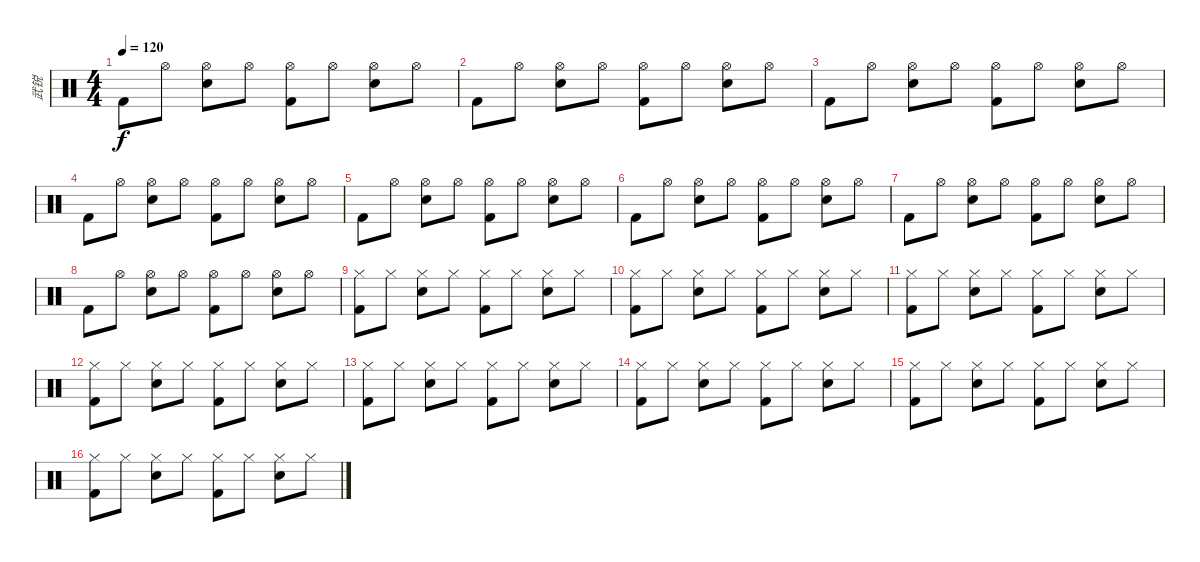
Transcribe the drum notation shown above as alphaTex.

\track ("武锐" "武锐") {instrument percussion}
\staff {score}
\articulation defaults
\ts (4 4)
\tempo 120
\clef neutral
\ks c "Kick (hit) 2".8{dy f} "Hi-Hat (open)".8
("Hi-Hat (open)" "Snare (hit) 2").8 "Hi-Hat (open)".8 ("Hi-Hat (open)" "Kick (hit) 2").8 "Hi-Hat (open)".8 ("Hi-Hat (open)" "Snare (hit) 2").8 "Hi-Hat (open)".8 |
"Kick (hit) 2".8 "Hi-Hat (open)".8 ("Hi-Hat (open)" "Snare (hit) 2").8 "Hi-Hat (open)".8 ("Hi-Hat (open)" "Kick (hit) 2").8 "Hi-Hat (open)".8 ("Hi-Hat (open)" "Snare (hit) 2").8 "Hi-Hat (open)".8 |
"Kick (hit) 2".8 "Hi-Hat (open)".8 ("Hi-Hat (open)" "Snare (hit) 2").8 "Hi-Hat (open)".8 ("Hi-Hat (open)" "Kick (hit) 2").8 "Hi-Hat (open)".8 ("Hi-Hat (open)" "Snare (hit) 2").8 "Hi-Hat (open)".8 |
"Kick (hit) 2".8 "Hi-Hat (open)".8 ("Hi-Hat (open)" "Snare (hit) 2").8 "Hi-Hat (open)".8 ("Hi-Hat (open)" "Kick (hit) 2").8 "Hi-Hat (open)".8 ("Hi-Hat (open)" "Snare (hit) 2").8 "Hi-Hat (open)".8 |
"Kick (hit) 2".8 "Hi-Hat (open)".8 ("Hi-Hat (open)" "Snare (hit) 2").8 "Hi-Hat (open)".8 ("Hi-Hat (open)" "Kick (hit) 2").8 "Hi-Hat (open)".8 ("Hi-Hat (open)" "Snare (hit) 2").8 "Hi-Hat (open)".8 |
"Kick (hit) 2".8 "Hi-Hat (open)".8 ("Hi-Hat (open)" "Snare (hit) 2").8 "Hi-Hat (open)".8 ("Hi-Hat (open)" "Kick (hit) 2").8 "Hi-Hat (open)".8 ("Hi-Hat (open)" "Snare (hit) 2").8 "Hi-Hat (open)".8 |
"Kick (hit) 2".8 "Hi-Hat (open)".8 ("Hi-Hat (open)" "Snare (hit) 2").8 "Hi-Hat (open)".8 ("Hi-Hat (open)" "Kick (hit) 2").8 "Hi-Hat (open)".8 ("Hi-Hat (open)" "Snare (hit) 2").8 "Hi-Hat (open)".8 |
"Kick (hit) 2".8 "Hi-Hat (open)".8 ("Hi-Hat (open)" "Snare (hit) 2").8 "Hi-Hat (open)".8 ("Hi-Hat (open)" "Kick (hit) 2").8 "Hi-Hat (open)".8 ("Hi-Hat (open)" "Snare (hit) 2").8 "Hi-Hat (open)".8 |
("Hi-Hat (closed)" "Kick (hit) 2").8 "Hi-Hat (closed)".8 ("Hi-Hat (closed)" "Snare (hit) 2").8 "Hi-Hat (closed)".8 ("Hi-Hat (closed)" "Kick (hit) 2").8 "Hi-Hat (closed)".8 ("Hi-Hat (closed)" "Snare (hit) 2").8 "Hi-Hat (closed)".8 |
("Hi-Hat (closed)" "Kick (hit) 2").8 "Hi-Hat (closed)".8 ("Hi-Hat (closed)" "Snare (hit) 2").8 "Hi-Hat (closed)".8 ("Hi-Hat (closed)" "Kick (hit) 2").8 "Hi-Hat (closed)".8 ("Hi-Hat (closed)" "Snare (hit) 2").8 "Hi-Hat (closed)".8 |
("Hi-Hat (closed)" "Kick (hit) 2").8 "Hi-Hat (closed)".8 ("Hi-Hat (closed)" "Snare (hit) 2").8 "Hi-Hat (closed)".8 ("Hi-Hat (closed)" "Kick (hit) 2").8 "Hi-Hat (closed)".8 ("Hi-Hat (closed)" "Snare (hit) 2").8 "Hi-Hat (closed)".8 |
("Hi-Hat (closed)" "Kick (hit) 2").8 "Hi-Hat (closed)".8 ("Hi-Hat (closed)" "Snare (hit) 2").8 "Hi-Hat (closed)".8 ("Hi-Hat (closed)" "Kick (hit) 2").8 "Hi-Hat (closed)".8 ("Hi-Hat (closed)" "Snare (hit) 2").8 "Hi-Hat (closed)".8 |
("Hi-Hat (closed)" "Kick (hit) 2").8 "Hi-Hat (closed)".8 ("Hi-Hat (closed)" "Snare (hit) 2").8 "Hi-Hat (closed)".8 ("Hi-Hat (closed)" "Kick (hit) 2").8 "Hi-Hat (closed)".8 ("Hi-Hat (closed)" "Snare (hit) 2").8 "Hi-Hat (closed)".8 |
("Hi-Hat (closed)" "Kick (hit) 2").8 "Hi-Hat (closed)".8 ("Hi-Hat (closed)" "Snare (hit) 2").8 "Hi-Hat (closed)".8 ("Hi-Hat (closed)" "Kick (hit) 2").8 "Hi-Hat (closed)".8 ("Hi-Hat (closed)" "Snare (hit) 2").8 "Hi-Hat (closed)".8 |
("Hi-Hat (closed)" "Kick (hit) 2").8 "Hi-Hat (closed)".8 ("Hi-Hat (closed)" "Snare (hit) 2").8 "Hi-Hat (closed)".8 ("Hi-Hat (closed)" "Kick (hit) 2").8 "Hi-Hat (closed)".8 ("Hi-Hat (closed)" "Snare (hit) 2").8 "Hi-Hat (closed)".8 |
("Hi-Hat (closed)" "Kick (hit) 2").8 "Hi-Hat (closed)".8 ("Hi-Hat (closed)" "Snare (hit) 2").8 "Hi-Hat (closed)".8 ("Hi-Hat (closed)" "Kick (hit) 2").8 "Hi-Hat (closed)".8 ("Hi-Hat (closed)" "Snare (hit) 2").8 "Hi-Hat (closed)".8
